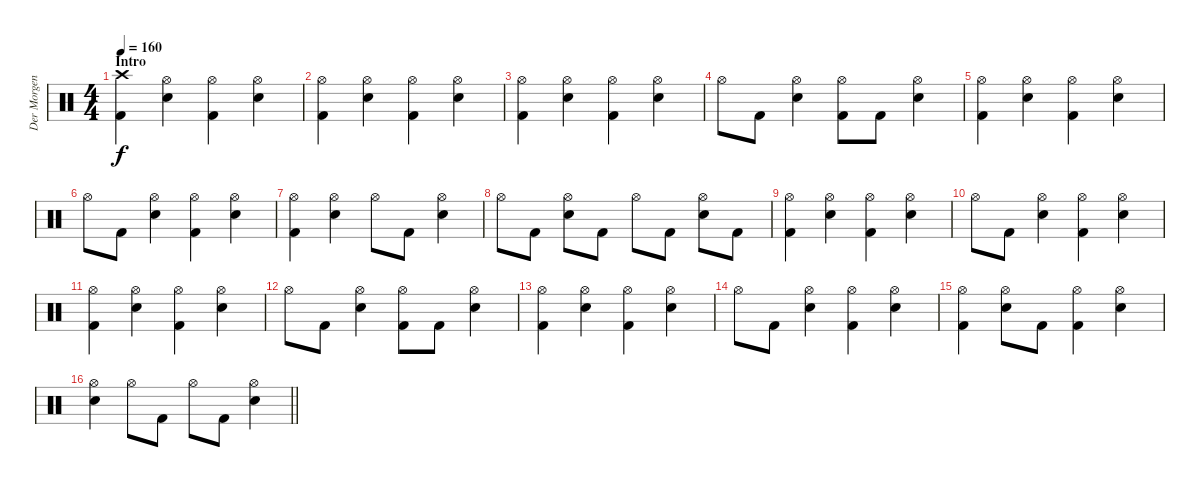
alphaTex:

\track ("Der Morgenstern" "Der Morgen") {instrument percussion}
\staff {score}
\articulation defaults
\ts (4 4)
\section ("" "Intro")
\tempo 160
\clef neutral
\ks c
("Crash high (hit)" "Kick (hit) 2").4{dy f} ("Hi-Hat (open)" "Electric Snare (hit)").4 ("Hi-Hat (open)" "Kick (hit) 2").4 ("Hi-Hat (open)" "Electric Snare (hit)").4 |
("Hi-Hat (open)" "Kick (hit) 2").4 ("Hi-Hat (open)" "Electric Snare (hit)").4 ("Hi-Hat (open)" "Kick (hit) 2").4 ("Hi-Hat (open)" "Electric Snare (hit)").4 |
("Hi-Hat (open)" "Kick (hit) 2").4 ("Hi-Hat (open)" "Electric Snare (hit)").4 ("Hi-Hat (open)" "Kick (hit) 2").4 ("Hi-Hat (open)" "Electric Snare (hit)").4 |
"Hi-Hat (open)".8 "Kick (hit) 2".8 ("Hi-Hat (open)" "Electric Snare (hit)").4 ("Hi-Hat (open)" "Kick (hit) 2").8 "Kick (hit) 2".8 ("Hi-Hat (open)" "Electric Snare (hit)").4 |
("Hi-Hat (open)" "Kick (hit) 2").4 ("Hi-Hat (open)" "Electric Snare (hit)").4 ("Hi-Hat (open)" "Kick (hit) 2").4 ("Hi-Hat (open)" "Electric Snare (hit)").4 |
"Hi-Hat (open)".8 "Kick (hit) 2".8 ("Hi-Hat (open)" "Electric Snare (hit)").4 ("Hi-Hat (open)" "Kick (hit) 2").4 ("Hi-Hat (open)" "Electric Snare (hit)").4 |
("Hi-Hat (open)" "Kick (hit) 2").4 ("Hi-Hat (open)" "Electric Snare (hit)").4 "Hi-Hat (open)".8 "Kick (hit) 2".8 ("Hi-Hat (open)" "Electric Snare (hit)").4 |
"Hi-Hat (open)".8 "Kick (hit) 2".8 ("Hi-Hat (open)" "Electric Snare (hit)").8 "Kick (hit) 2".8 "Hi-Hat (open)".8 "Kick (hit) 2".8 ("Hi-Hat (open)" "Electric Snare (hit)").8 "Kick (hit) 2".8 |
("Hi-Hat (open)" "Kick (hit) 2").4 ("Hi-Hat (open)" "Electric Snare (hit)").4 ("Hi-Hat (open)" "Kick (hit) 2").4 ("Hi-Hat (open)" "Electric Snare (hit)").4 |
"Hi-Hat (open)".8 "Kick (hit) 2".8 ("Hi-Hat (open)" "Electric Snare (hit)").4 ("Hi-Hat (open)" "Kick (hit) 2").4 ("Hi-Hat (open)" "Electric Snare (hit)").4 |
("Hi-Hat (open)" "Kick (hit) 2").4 ("Hi-Hat (open)" "Electric Snare (hit)").4 ("Hi-Hat (open)" "Kick (hit) 2").4 ("Hi-Hat (open)" "Electric Snare (hit)").4 |
"Hi-Hat (open)".8 "Kick (hit) 2".8 ("Hi-Hat (open)" "Electric Snare (hit)").4 ("Hi-Hat (open)" "Kick (hit) 2").8 "Kick (hit) 2".8 ("Hi-Hat (open)" "Electric Snare (hit)").4 |
("Hi-Hat (open)" "Kick (hit) 2").4 ("Hi-Hat (open)" "Electric Snare (hit)").4 ("Hi-Hat (open)" "Kick (hit) 2").4 ("Hi-Hat (open)" "Electric Snare (hit)").4 |
"Hi-Hat (open)".8 "Kick (hit) 2".8 ("Hi-Hat (open)" "Electric Snare (hit)").4 ("Hi-Hat (open)" "Kick (hit) 2").4 ("Hi-Hat (open)" "Electric Snare (hit)").4 |
("Hi-Hat (open)" "Kick (hit) 2").4 ("Hi-Hat (open)" "Electric Snare (hit)").8 "Kick (hit) 2".8 ("Hi-Hat (open)" "Kick (hit) 2").4 ("Hi-Hat (open)" "Electric Snare (hit)").4 |
\barLineRight lightlight
("Hi-Hat (open)" "Electric Snare (hit)").4 "Hi-Hat (open)".8 "Kick (hit) 2".8 "Hi-Hat (open)".8 "Kick (hit) 2".8 ("Hi-Hat (open)" "Electric Snare (hit)").4
